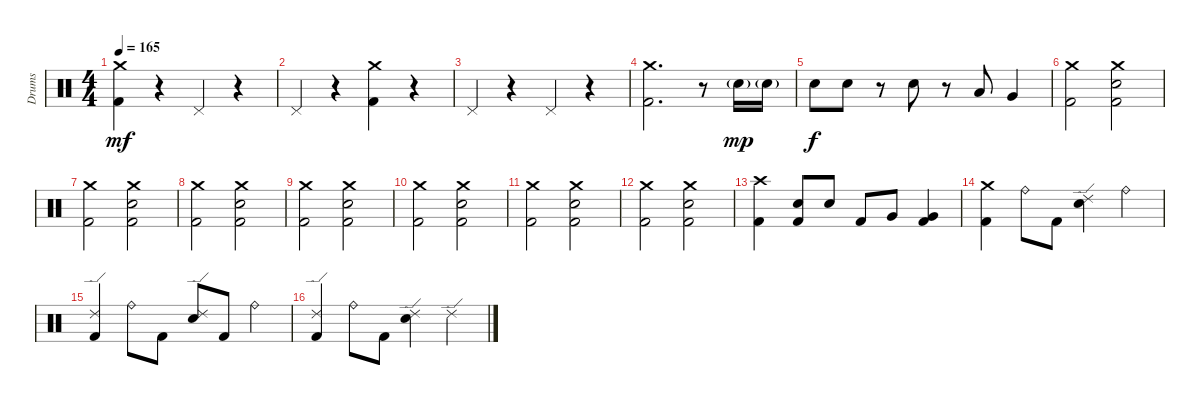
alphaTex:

\track ("Drums" "Drums") {instrument percussion}
\staff {score}
\articulation defaults
\ts (4 4)
\tempo 165
\clef neutral
\ks c
("Crash medium (hit)" "Kick (hit) 2").4{dy mf} r.4 "Pedal Hi-Hat (hit)".4 r.4 |
"Pedal Hi-Hat (hit)".4 r.4 ("Crash medium (hit)" "Kick (hit) 2").4 r.4 |
"Pedal Hi-Hat (hit)".4 r.4 "Pedal Hi-Hat (hit)".4 r.4 |
("Crash medium (hit)" "Kick (hit) 2").2{d} r.8 "Electric Snare (hit)"{g}.16{dy mp} "Electric Snare (hit)"{g}.16 |
"Electric Snare (hit)".8{dy f} "Electric Snare (hit)".8 r.8 "Electric Snare (hit)".8 r.8 "Low Tom (hit)".8 "Very Low Tom (hit)".4 |
("Crash medium (hit)" "Kick (hit) 2").2 ("Crash medium (hit)" "Electric Snare (hit)" "Kick (hit) 2").2 |
("Crash medium (hit)" "Kick (hit) 2").2 ("Crash medium (hit)" "Electric Snare (hit)" "Kick (hit) 2").2 |
("Crash medium (hit)" "Kick (hit) 2").2 ("Crash medium (hit)" "Electric Snare (hit)" "Kick (hit) 2").2 |
("Crash medium (hit)" "Kick (hit) 2").2 ("Crash medium (hit)" "Electric Snare (hit)" "Kick (hit) 2").2 |
("Crash medium (hit)" "Kick (hit) 2").2 ("Crash medium (hit)" "Electric Snare (hit)" "Kick (hit) 2").2 |
("Crash medium (hit)" "Kick (hit) 2").2 ("Crash medium (hit)" "Electric Snare (hit)" "Kick (hit) 2").2 |
("Crash medium (hit)" "Kick (hit) 2").2 ("Crash medium (hit)" "Electric Snare (hit)" "Kick (hit) 2").2 |
("Crash high (hit)" "Kick (hit) 2").4 ("Electric Snare (hit)" "Kick (hit) 2").8 "Electric Snare (hit)".8 "Kick (hit) 2".8 "Very Low Tom (hit)".8 ("Very Low Tom (hit)" "Kick (hit) 2").4 |
("Crash medium (hit)" "Kick (hit) 2").4 "Ride (bell)".8 "Kick (hit) 2".8 ("Ride (edge) 2" "Electric Snare (hit)").4 "Ride (bell)".4 |
("Ride (edge) 2" "Kick (hit) 2").4 "Ride (bell)".8 "Kick (hit) 2".8 ("Ride (edge) 2" "Electric Snare (hit)").8 "Kick (hit) 2".8 "Ride (bell)".4 |
("Ride (edge) 2" "Kick (hit) 2").4 "Ride (bell)".8 "Kick (hit) 2".8 ("Ride (edge) 2" "Electric Snare (hit)").4 "Ride (edge) 2".4
